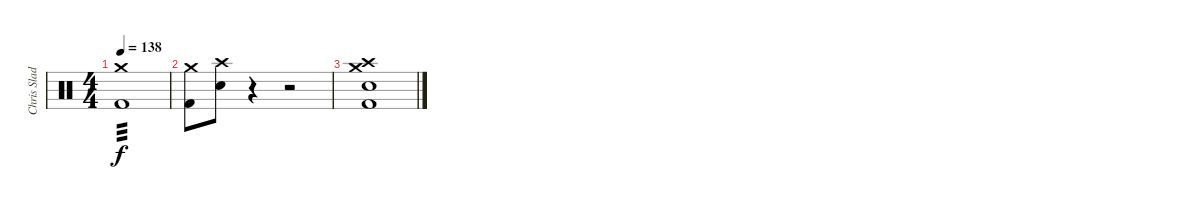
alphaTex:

\track ("Chris Slade" "Chris Slad") {instrument percussion}
\staff {score}
\articulation defaults
\ts (4 4)
\tempo 138
\clef neutral
\ks c
("Kick (hit) 2" "Crash medium (hit)").1{tp 3 dy f} |
("Kick (hit) 2" "Crash medium (hit)").8 ("Snare (hit) 2" "Crash high (hit)").8 r.4 r.2 |
("Crash high (hit)" "Snare (hit) 2" "Kick (hit) 2" "Crash medium (hit)").1
